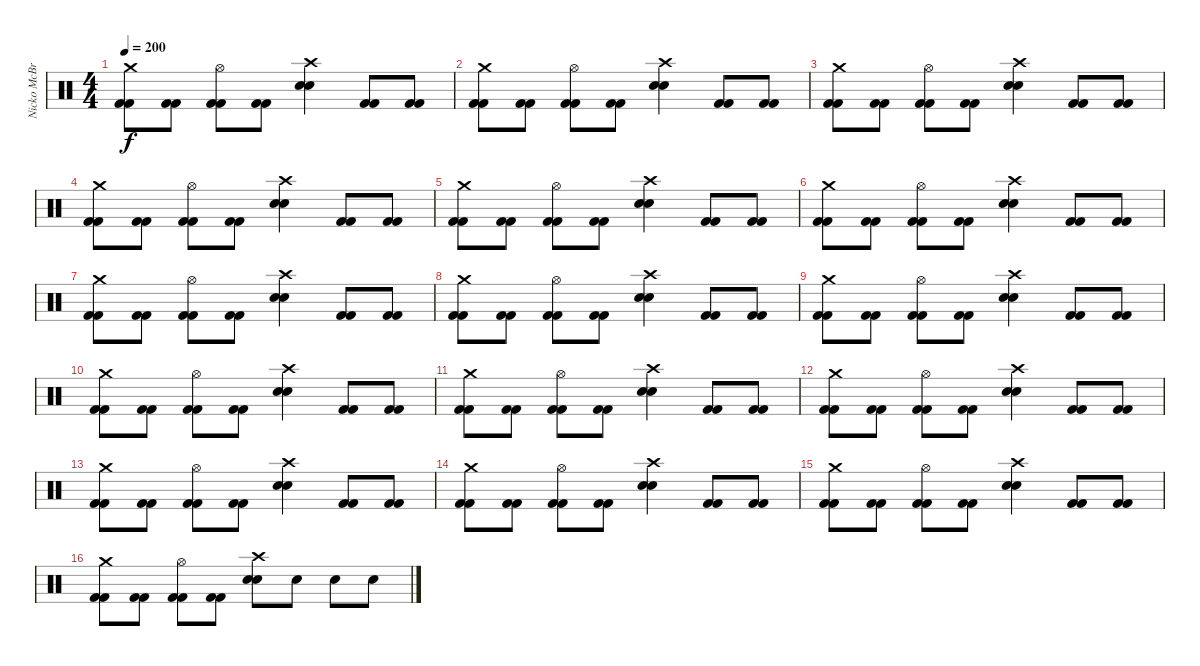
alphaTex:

\track ("Nicko McBrain" "Nicko McBr") {instrument percussion}
\staff {score}
\articulation defaults
\ts (4 4)
\tempo 200
\clef neutral
\ks c
("Crash medium (hit)" "Kick (hit) 2" "Kick (hit) 2").8{dy f} ("Kick (hit) 2" "Kick (hit) 2").8 ("Hi-Hat (open)" "Kick (hit) 2" "Kick (hit) 2").8 ("Kick (hit) 2" "Kick (hit) 2").8 ("Crash high (hit)" "Snare (hit) 2" "Snare (hit) 2").4 ("Kick (hit) 2" "Kick (hit) 2").8 ("Kick (hit) 2" "Kick (hit) 2").8 |
("Crash medium (hit)" "Kick (hit) 2" "Kick (hit) 2").8 ("Kick (hit) 2" "Kick (hit) 2").8 ("Hi-Hat (open)" "Kick (hit) 2" "Kick (hit) 2").8 ("Kick (hit) 2" "Kick (hit) 2").8 ("Crash high (hit)" "Snare (hit) 2" "Snare (hit) 2").4 ("Kick (hit) 2" "Kick (hit) 2").8 ("Kick (hit) 2" "Kick (hit) 2").8 |
("Crash medium (hit)" "Kick (hit) 2" "Kick (hit) 2").8 ("Kick (hit) 2" "Kick (hit) 2").8 ("Hi-Hat (open)" "Kick (hit) 2" "Kick (hit) 2").8 ("Kick (hit) 2" "Kick (hit) 2").8 ("Crash high (hit)" "Snare (hit) 2" "Snare (hit) 2").4 ("Kick (hit) 2" "Kick (hit) 2").8 ("Kick (hit) 2" "Kick (hit) 2").8 |
("Crash medium (hit)" "Kick (hit) 2" "Kick (hit) 2").8 ("Kick (hit) 2" "Kick (hit) 2").8 ("Hi-Hat (open)" "Kick (hit) 2" "Kick (hit) 2").8 ("Kick (hit) 2" "Kick (hit) 2").8 ("Crash high (hit)" "Snare (hit) 2" "Snare (hit) 2").4 ("Kick (hit) 2" "Kick (hit) 2").8 ("Kick (hit) 2" "Kick (hit) 2").8 |
("Crash medium (hit)" "Kick (hit) 2" "Kick (hit) 2").8 ("Kick (hit) 2" "Kick (hit) 2").8 ("Hi-Hat (open)" "Kick (hit) 2" "Kick (hit) 2").8 ("Kick (hit) 2" "Kick (hit) 2").8 ("Crash high (hit)" "Snare (hit) 2" "Snare (hit) 2").4 ("Kick (hit) 2" "Kick (hit) 2").8 ("Kick (hit) 2" "Kick (hit) 2").8 |
("Crash medium (hit)" "Kick (hit) 2" "Kick (hit) 2").8 ("Kick (hit) 2" "Kick (hit) 2").8 ("Hi-Hat (open)" "Kick (hit) 2" "Kick (hit) 2").8 ("Kick (hit) 2" "Kick (hit) 2").8 ("Crash high (hit)" "Snare (hit) 2" "Snare (hit) 2").4 ("Kick (hit) 2" "Kick (hit) 2").8 ("Kick (hit) 2" "Kick (hit) 2").8 |
("Crash medium (hit)" "Kick (hit) 2" "Kick (hit) 2").8 ("Kick (hit) 2" "Kick (hit) 2").8 ("Hi-Hat (open)" "Kick (hit) 2" "Kick (hit) 2").8 ("Kick (hit) 2" "Kick (hit) 2").8 ("Crash high (hit)" "Snare (hit) 2" "Snare (hit) 2").4 ("Kick (hit) 2" "Kick (hit) 2").8 ("Kick (hit) 2" "Kick (hit) 2").8 |
("Crash medium (hit)" "Kick (hit) 2" "Kick (hit) 2").8 ("Kick (hit) 2" "Kick (hit) 2").8 ("Hi-Hat (open)" "Kick (hit) 2" "Kick (hit) 2").8 ("Kick (hit) 2" "Kick (hit) 2").8 ("Crash high (hit)" "Snare (hit) 2" "Snare (hit) 2").4 ("Kick (hit) 2" "Kick (hit) 2").8 ("Kick (hit) 2" "Kick (hit) 2").8 |
("Crash medium (hit)" "Kick (hit) 2" "Kick (hit) 2").8 ("Kick (hit) 2" "Kick (hit) 2").8 ("Hi-Hat (open)" "Kick (hit) 2" "Kick (hit) 2").8 ("Kick (hit) 2" "Kick (hit) 2").8 ("Crash high (hit)" "Snare (hit) 2" "Snare (hit) 2").4 ("Kick (hit) 2" "Kick (hit) 2").8 ("Kick (hit) 2" "Kick (hit) 2").8 |
("Crash medium (hit)" "Kick (hit) 2" "Kick (hit) 2").8 ("Kick (hit) 2" "Kick (hit) 2").8 ("Hi-Hat (open)" "Kick (hit) 2" "Kick (hit) 2").8 ("Kick (hit) 2" "Kick (hit) 2").8 ("Crash high (hit)" "Snare (hit) 2" "Snare (hit) 2").4 ("Kick (hit) 2" "Kick (hit) 2").8 ("Kick (hit) 2" "Kick (hit) 2").8 |
("Crash medium (hit)" "Kick (hit) 2" "Kick (hit) 2").8 ("Kick (hit) 2" "Kick (hit) 2").8 ("Hi-Hat (open)" "Kick (hit) 2" "Kick (hit) 2").8 ("Kick (hit) 2" "Kick (hit) 2").8 ("Crash high (hit)" "Snare (hit) 2" "Snare (hit) 2").4 ("Kick (hit) 2" "Kick (hit) 2").8 ("Kick (hit) 2" "Kick (hit) 2").8 |
("Crash medium (hit)" "Kick (hit) 2" "Kick (hit) 2").8 ("Kick (hit) 2" "Kick (hit) 2").8 ("Hi-Hat (open)" "Kick (hit) 2" "Kick (hit) 2").8 ("Kick (hit) 2" "Kick (hit) 2").8 ("Crash high (hit)" "Snare (hit) 2" "Snare (hit) 2").4 ("Kick (hit) 2" "Kick (hit) 2").8 ("Kick (hit) 2" "Kick (hit) 2").8 |
("Crash medium (hit)" "Kick (hit) 2" "Kick (hit) 2").8 ("Kick (hit) 2" "Kick (hit) 2").8 ("Hi-Hat (open)" "Kick (hit) 2" "Kick (hit) 2").8 ("Kick (hit) 2" "Kick (hit) 2").8 ("Crash high (hit)" "Snare (hit) 2" "Snare (hit) 2").4 ("Kick (hit) 2" "Kick (hit) 2").8 ("Kick (hit) 2" "Kick (hit) 2").8 |
("Crash medium (hit)" "Kick (hit) 2" "Kick (hit) 2").8 ("Kick (hit) 2" "Kick (hit) 2").8 ("Hi-Hat (open)" "Kick (hit) 2" "Kick (hit) 2").8 ("Kick (hit) 2" "Kick (hit) 2").8 ("Crash high (hit)" "Snare (hit) 2" "Snare (hit) 2").4 ("Kick (hit) 2" "Kick (hit) 2").8 ("Kick (hit) 2" "Kick (hit) 2").8 |
("Crash medium (hit)" "Kick (hit) 2" "Kick (hit) 2").8 ("Kick (hit) 2" "Kick (hit) 2").8 ("Hi-Hat (open)" "Kick (hit) 2" "Kick (hit) 2").8 ("Kick (hit) 2" "Kick (hit) 2").8 ("Crash high (hit)" "Snare (hit) 2" "Snare (hit) 2").4 ("Kick (hit) 2" "Kick (hit) 2").8 ("Kick (hit) 2" "Kick (hit) 2").8 |
("Crash medium (hit)" "Kick (hit) 2" "Kick (hit) 2").8 ("Kick (hit) 2" "Kick (hit) 2").8 ("Hi-Hat (open)" "Kick (hit) 2" "Kick (hit) 2").8 ("Kick (hit) 2" "Kick (hit) 2").8 ("Crash high (hit)" "Snare (hit) 2" "Snare (hit) 2").8 "Snare (hit) 2".8 "Snare (hit) 2".8 "Snare (hit) 2".8
